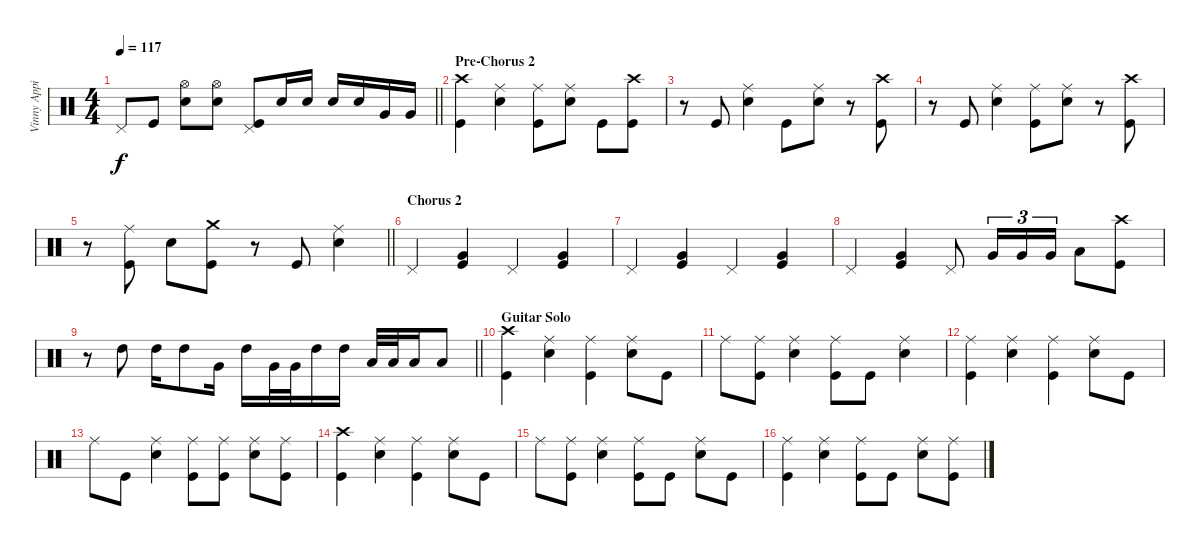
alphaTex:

\track ("Vinny Appice" "Vinny Appi") {instrument percussion}
\staff {score}
\articulation defaults
\ts (4 4)
\tempo 117
\clef neutral
\barLineRight lightlight
\ks c "Pedal Hi-Hat (hit)".8{dy f} "Kick (hit)".8
("Hi-Hat (open)" "Snare (hit) 2").8 ("Hi-Hat (open)" "Snare (hit) 2").8 ("Pedal Hi-Hat (hit)" "Kick (hit)").8 "Snare (hit) 2".16 "Snare (hit) 2".16 "Snare (hit) 2".16 "Snare (hit) 2".16 "Very Low Tom (hit)".16 "Very Low Tom (hit)".16 |
\section ("" "Pre-Chorus 2")
("Kick (hit)" "Crash high (hit)").4 ("Ride (middle)" "Snare (hit) 2").4 ("Ride (middle)" "Kick (hit)").8 ("Ride (middle)" "Snare (hit) 2").8 "Kick (hit)".8 ("Kick (hit)" "Crash high (hit)").8 |
r.8 "Kick (hit)".8 ("Ride (middle)" "Snare (hit) 2").4 "Kick (hit)".8 ("Ride (middle)" "Snare (hit) 2").8 r.8 ("Crash high (hit)" "Kick (hit)").8 |
r.8 "Kick (hit)".8 ("Ride (middle)" "Snare (hit) 2").4 ("Ride (middle)" "Kick (hit)").8 ("Ride (middle)" "Snare (hit) 2").8 r.8 ("Kick (hit)" "Crash high (hit)").8 |
\barLineRight lightlight
r.8 ("Ride (middle)" "Kick (hit)").8 "Snare (hit) 2".8 ("Kick (hit)" "Crash medium (hit)").8 r.8 "Kick (hit)".8 ("Ride (middle)" "Snare (hit) 2").4 |
\section ("" "Chorus 2")
"Pedal Hi-Hat (hit)".4 ("Very Low Tom (hit)" "Kick (hit)").4 "Pedal Hi-Hat (hit)".4 ("Very Low Tom (hit)" "Kick (hit)").4 |
"Pedal Hi-Hat (hit)".4 ("Very Low Tom (hit)" "Kick (hit)").4 "Pedal Hi-Hat (hit)".4 ("Very Low Tom (hit)" "Kick (hit)").4 |
"Pedal Hi-Hat (hit)".4 ("Very Low Tom (hit)" "Kick (hit)").4 "Pedal Hi-Hat (hit)".8 "Very Low Tom (hit)".16{tu (3 2)} "Very Low Tom (hit)".16{tu (3 2)} "Very Low Tom (hit)".16{tu (3 2)} "Low Tom (hit)".8 ("Kick (hit)" "Crash high (hit)").8 |
\barLineRight lightlight
r.8 "High Tom (hit)".8 "High Tom (hit)".16 "High Tom (hit)".8 "Very Low Tom (hit)".16 "High Tom (hit)".16 "Very Low Tom (hit)".32 "Very Low Tom (hit)".32 "High Tom (hit)".16 "High Tom (hit)".16 "Low Floor Tom (hit)".32 "Low Floor Tom (hit)".32 "Low Tom (hit)".16 "Low Tom (hit)".8 |
\section ("" "Guitar Solo")
("Kick (hit)" "Crash high (hit)").4 ("Ride (middle)" "Snare (hit) 2").4 ("Ride (middle)" "Kick (hit)").4 ("Ride (middle)" "Snare (hit) 2").8 "Kick (hit)".8 |
"Ride (middle)".8 ("Ride (middle)" "Kick (hit)").8 ("Ride (middle)" "Snare (hit) 2").4 ("Ride (middle)" "Kick (hit)").8 "Kick (hit)".8 ("Ride (middle)" "Snare (hit) 2").4 |
("Ride (middle)" "Kick (hit)").4 ("Ride (middle)" "Snare (hit) 2").4 ("Ride (middle)" "Kick (hit)").4 ("Ride (middle)" "Snare (hit) 2").8 "Kick (hit)".8 |
"Ride (middle)".8 "Kick (hit)".8 ("Ride (middle)" "Snare (hit) 2").4 ("Ride (middle)" "Kick (hit)").8 ("Ride (middle)" "Kick (hit)").8 ("Snare (hit) 2" "Ride (middle)").8 ("Kick (hit)" "Ride (middle)").8 |
("Crash high (hit)" "Kick (hit)").4 ("Ride (middle)" "Snare (hit) 2").4 ("Ride (middle)" "Kick (hit)").4 ("Ride (middle)" "Snare (hit) 2").8 "Kick (hit)".8 |
"Ride (middle)".8 ("Ride (middle)" "Kick (hit)").8 ("Ride (middle)" "Snare (hit) 2").4 ("Ride (middle)" "Kick (hit)").8 "Kick (hit)".8 ("Ride (middle)" "Snare (hit) 2").8 "Kick (hit)".8 |
("Ride (middle)" "Kick (hit)").4 ("Ride (middle)" "Snare (hit) 2").4 ("Kick (hit)" "Ride (middle)").8 "Kick (hit)".8 ("Ride (middle)" "Snare (hit) 2").8 ("Ride (middle)" "Kick (hit)").8
